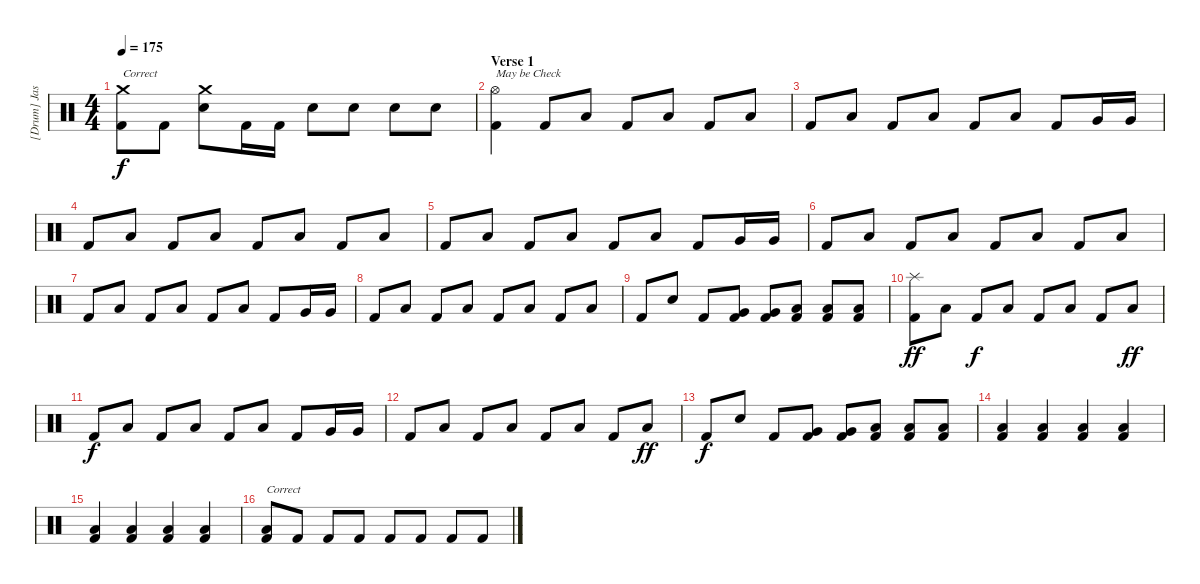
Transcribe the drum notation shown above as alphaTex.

\track ("[Drum] Jason \"Shakes\" West" "[Drum] Jas") {instrument percussion}
\staff {score}
\articulation defaults
\ts (4 4)
\tempo 175
\clef neutral
\ks c
("Crash medium (hit)" "Kick (hit) 2").8{txt "Correct" dy f} "Kick (hit) 2".8 ("Crash medium (hit)" "Electric Snare (hit)").8 "Kick (hit) 2".16 "Kick (hit) 2".16 "Electric Snare (hit)".8 "Electric Snare (hit)".8 "Electric Snare (hit)".8 "Electric Snare (hit)".8 |
\section ("" "Verse 1")
("Hi-Hat (open)" "Kick (hit) 2").4{txt "May be Check"} "Kick (hit) 2".8 "Low Floor Tom (hit)".8 "Kick (hit) 2".8 "Low Floor Tom (hit)".8 "Kick (hit) 2".8 "Low Floor Tom (hit)".8 |
"Kick (hit) 2".8 "Low Floor Tom (hit)".8 "Kick (hit) 2".8 "Low Floor Tom (hit)".8 "Kick (hit) 2".8 "Low Floor Tom (hit)".8 "Kick (hit) 2".8 "Very Low Tom (hit)".16 "Very Low Tom (hit)".16 |
"Kick (hit) 2".8 "Low Floor Tom (hit)".8 "Kick (hit) 2".8 "Low Floor Tom (hit)".8 "Kick (hit) 2".8 "Low Floor Tom (hit)".8 "Kick (hit) 2".8 "Low Floor Tom (hit)".8 |
"Kick (hit) 2".8 "Low Floor Tom (hit)".8 "Kick (hit) 2".8 "Low Floor Tom (hit)".8 "Kick (hit) 2".8 "Low Floor Tom (hit)".8 "Kick (hit) 2".8 "Very Low Tom (hit)".16 "Very Low Tom (hit)".16 |
"Kick (hit) 2".8 "Low Floor Tom (hit)".8 "Kick (hit) 2".8 "Low Floor Tom (hit)".8 "Kick (hit) 2".8 "Low Floor Tom (hit)".8 "Kick (hit) 2".8 "Low Floor Tom (hit)".8 |
"Kick (hit) 2".8 "Low Floor Tom (hit)".8 "Kick (hit) 2".8 "Low Floor Tom (hit)".8 "Kick (hit) 2".8 "Low Floor Tom (hit)".8 "Kick (hit) 2".8 "Very Low Tom (hit)".16 "Very Low Tom (hit)".16 |
"Kick (hit) 2".8 "Low Floor Tom (hit)".8 "Kick (hit) 2".8 "Low Floor Tom (hit)".8 "Kick (hit) 2".8 "Low Floor Tom (hit)".8 "Kick (hit) 2".8 "Low Floor Tom (hit)".8 |
"Kick (hit) 2".8 "Electric Snare (hit)".8 "Kick (hit) 2".8 ("Very Low Tom (hit)" "Kick (hit) 2").8 ("Very Low Tom (hit)" "Kick (hit) 2").8 ("Low Floor Tom (hit)" "Kick (hit) 2").8 ("Low Floor Tom (hit)" "Kick (hit) 2").8 ("Low Floor Tom (hit)" "Kick (hit) 2").8 |
("Splash (hit)" "Kick (hit) 2").8{dy ff} "Low Floor Tom (hit)".8 "Kick (hit) 2".8{dy f} "Low Floor Tom (hit)".8 "Kick (hit) 2".8 "Low Floor Tom (hit)".8 "Kick (hit) 2".8 "Low Floor Tom (hit)".8{dy ff} |
"Kick (hit) 2".8{dy f} "Low Floor Tom (hit)".8 "Kick (hit) 2".8 "Low Floor Tom (hit)".8 "Kick (hit) 2".8 "Low Floor Tom (hit)".8 "Kick (hit) 2".8 "Very Low Tom (hit)".16 "Very Low Tom (hit)".16 |
"Kick (hit) 2".8 "Low Floor Tom (hit)".8 "Kick (hit) 2".8 "Low Floor Tom (hit)".8 "Kick (hit) 2".8 "Low Floor Tom (hit)".8 "Kick (hit) 2".8 "Low Floor Tom (hit)".8{dy ff} |
"Kick (hit) 2".8{dy f} "Electric Snare (hit)".8 "Kick (hit) 2".8 ("Very Low Tom (hit)" "Kick (hit) 2").8 ("Very Low Tom (hit)" "Kick (hit) 2").8 ("Low Floor Tom (hit)" "Kick (hit) 2").8 ("Low Floor Tom (hit)" "Kick (hit) 2").8 ("Low Floor Tom (hit)" "Kick (hit) 2").8 |
("Low Floor Tom (hit)" "Kick (hit) 2").4 ("Low Floor Tom (hit)" "Kick (hit) 2").4 ("Low Floor Tom (hit)" "Kick (hit) 2").4 ("Low Floor Tom (hit)" "Kick (hit) 2").4 |
("Low Floor Tom (hit)" "Kick (hit) 2").4 ("Low Floor Tom (hit)" "Kick (hit) 2").4 ("Low Floor Tom (hit)" "Kick (hit) 2").4 ("Low Floor Tom (hit)" "Kick (hit) 2").4 |
("Low Floor Tom (hit)" "Kick (hit) 2").8{txt "Correct"} "Kick (hit) 2".8 "Kick (hit) 2".8 "Kick (hit) 2".8 "Kick (hit) 2".8 "Kick (hit) 2".8 "Kick (hit) 2".8 "Kick (hit) 2".8
